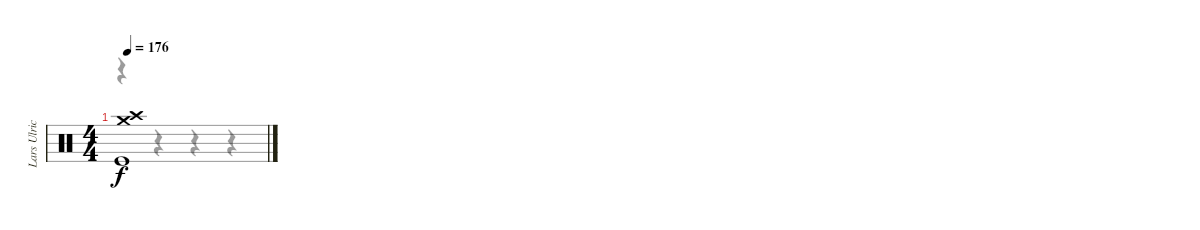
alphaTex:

\track ("Lars Ulrich" "Lars Ulric") {instrument percussion}
\staff {score}
\articulation defaults
\voice
\ts (4 4)
\tempo 176
\clef neutral
\ks c
("Kick (hit)" "Crash medium (hit)" "Crash high (hit)").1{dy f}
\voice
\clef neutral
\ottava regular
\simile none
\ks c
r.4{dy f} r.4 r.4 r.4
